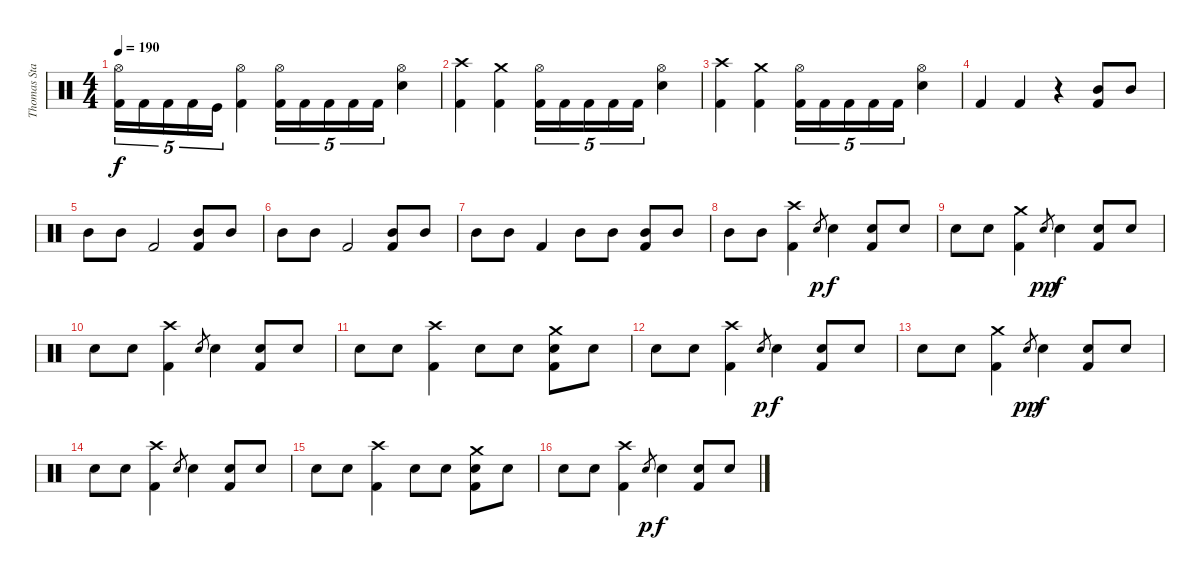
\track ("Thomas Stauch" "Thomas Sta") {instrument percussion}
\staff {score}
\articulation defaults
\ts (4 4)
\tempo 190
\clef neutral
\ks c
("Hi-Hat (open)" "Kick (hit) 2").16{tu (5 4) dy f} "Kick (hit) 2".16{tu (5 4)} "Kick (hit) 2".16{tu (5 4)} "Kick (hit) 2".16{tu (5 4)} "Kick (hit)".16{tu (5 4)} ("Hi-Hat (open)" "Kick (hit) 2").4 ("Hi-Hat (open)" "Kick (hit) 2").16{tu (5 4)} "Kick (hit) 2".16{tu (5 4)} "Kick (hit) 2".16{tu (5 4)} "Kick (hit) 2".16{tu (5 4)} "Kick (hit) 2".16{tu (5 4)} ("Hi-Hat (open)" "Electric Snare (hit)").4 |
("Crash high (hit)" "Kick (hit) 2").4 ("Crash medium (hit)" "Kick (hit) 2").4 ("Hi-Hat (open)" "Kick (hit) 2").16{tu (5 4)} "Kick (hit) 2".16{tu (5 4)} "Kick (hit) 2".16{tu (5 4)} "Kick (hit) 2".16{tu (5 4)} "Kick (hit) 2".16{tu (5 4)} ("Hi-Hat (open)" "Electric Snare (hit)").4 |
("Crash high (hit)" "Kick (hit) 2").4 ("Crash medium (hit)" "Kick (hit) 2").4 ("Hi-Hat (open)" "Kick (hit) 2").16{tu (5 4)} "Kick (hit) 2".16{tu (5 4)} "Kick (hit) 2".16{tu (5 4)} "Kick (hit) 2".16{tu (5 4)} "Kick (hit) 2".16{tu (5 4)} ("Hi-Hat (open)" "Electric Snare (hit)").4 |
"Kick (hit) 2".4 "Kick (hit) 2".4 r.4 ("Mid Tom (hit)" "Kick (hit) 2").8 "Mid Tom (hit)".8 |
"Mid Tom (hit)".8 "Mid Tom (hit)".8 "Kick (hit) 2".2 ("Mid Tom (hit)" "Kick (hit) 2").8 "Mid Tom (hit)".8 |
"Mid Tom (hit)".8 "Mid Tom (hit)".8 "Kick (hit) 2".2 ("Mid Tom (hit)" "Kick (hit) 2").8 "Mid Tom (hit)".8 |
"Mid Tom (hit)".8 "Mid Tom (hit)".8 "Kick (hit) 2".4 "Mid Tom (hit)".8 "Mid Tom (hit)".8 ("Mid Tom (hit)" "Kick (hit) 2").8 "Mid Tom (hit)".8 |
"Mid Tom (hit)".8 "Mid Tom (hit)".8 ("Crash high (hit)" "Kick (hit) 2").4 "Electric Snare (hit)".8{gr dy p} "Electric Snare (hit)".4{dy f} ("Electric Snare (hit)" "Kick (hit) 2").8 "Electric Snare (hit)".8 |
"Electric Snare (hit)".8 "Electric Snare (hit)".8 ("Crash medium (hit)" "Kick (hit) 2").4 "Electric Snare (hit)".8{gr dy pp} "Electric Snare (hit)".4{dy f} ("Electric Snare (hit)" "Kick (hit) 2").8 "Electric Snare (hit)".8 |
"Electric Snare (hit)".8 "Electric Snare (hit)".8 ("Crash high (hit)" "Kick (hit) 2").4 "Electric Snare (hit)".8{gr} "Electric Snare (hit)".4 ("Electric Snare (hit)" "Kick (hit) 2").8 "Electric Snare (hit)".8 |
"Electric Snare (hit)".8 "Electric Snare (hit)".8 ("Crash high (hit)" "Kick (hit) 2").4 "Electric Snare (hit)".8 "Electric Snare (hit)".8 ("Crash medium (hit)" "Electric Snare (hit)" "Kick (hit) 2").8 "Electric Snare (hit)".8 |
"Electric Snare (hit)".8 "Electric Snare (hit)".8 ("Crash high (hit)" "Kick (hit) 2").4 "Electric Snare (hit)".8{gr dy p} "Electric Snare (hit)".4{dy f} ("Electric Snare (hit)" "Kick (hit) 2").8 "Electric Snare (hit)".8 |
"Electric Snare (hit)".8 "Electric Snare (hit)".8 ("Crash medium (hit)" "Kick (hit) 2").4 "Electric Snare (hit)".8{gr dy pp} "Electric Snare (hit)".4{dy f} ("Electric Snare (hit)" "Kick (hit) 2").8 "Electric Snare (hit)".8 |
"Electric Snare (hit)".8 "Electric Snare (hit)".8 ("Crash high (hit)" "Kick (hit) 2").4 "Electric Snare (hit)".8{gr} "Electric Snare (hit)".4 ("Electric Snare (hit)" "Kick (hit) 2").8 "Electric Snare (hit)".8 |
"Electric Snare (hit)".8 "Electric Snare (hit)".8 ("Crash high (hit)" "Kick (hit) 2").4 "Electric Snare (hit)".8 "Electric Snare (hit)".8 ("Crash medium (hit)" "Electric Snare (hit)" "Kick (hit) 2").8 "Electric Snare (hit)".8 |
"Electric Snare (hit)".8 "Electric Snare (hit)".8 ("Crash high (hit)" "Kick (hit) 2").4 "Electric Snare (hit)".8{gr dy p} "Electric Snare (hit)".4{dy f} ("Electric Snare (hit)" "Kick (hit) 2").8 "Electric Snare (hit)".8
